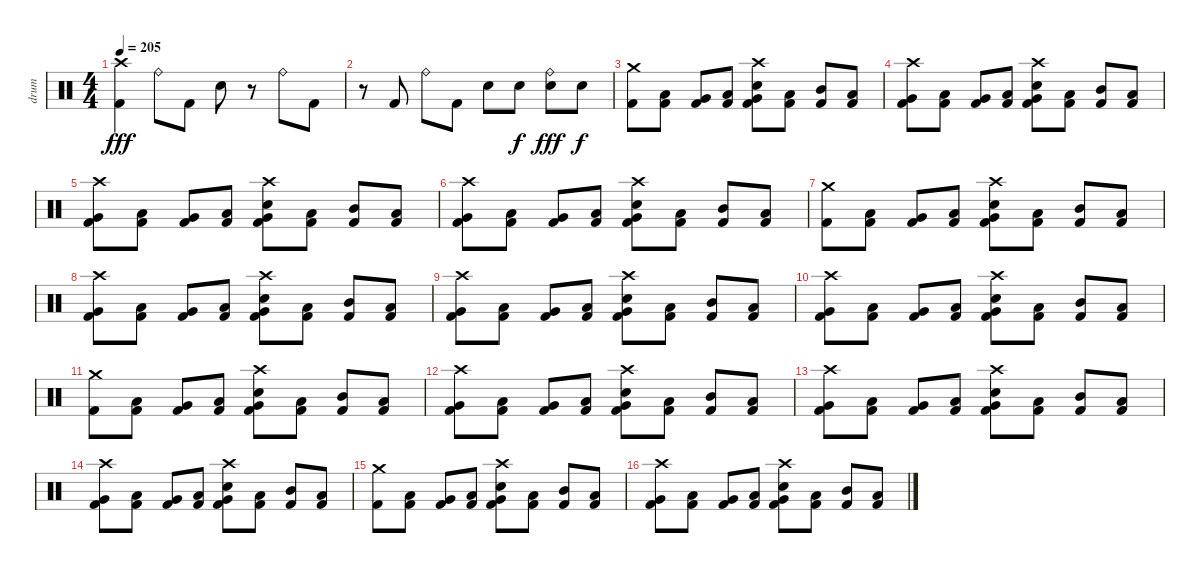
\track ("drum" "drum") {instrument percussion}
\staff {score}
\articulation defaults
\ts (4 4)
\tempo 205
\clef neutral
\ks c
("Crash high (hit)" "Kick (hit) 2").4{dy fff} "Ride (bell)".8 "Kick (hit) 2".8 "Electric Snare (hit)".8 r.8 "Ride (bell)".8 "Kick (hit) 2".8 |
r.8 "Kick (hit) 2".8 "Ride (bell)".8 "Kick (hit) 2".8 "Electric Snare (hit)".8 "Electric Snare (hit)".8{dy f} ("Ride (bell)" "Electric Snare (hit)").8{dy fff} "Electric Snare (hit)".8{dy f} |
("Crash medium (hit)" "Kick (hit) 2").8 ("Low Tom (hit)" "Kick (hit) 2").8 ("Very Low Tom (hit)" "Kick (hit) 2").8 ("Low Floor Tom (hit)" "Kick (hit) 2").8 ("Crash high (hit)" "Very Low Tom (hit)" "Electric Snare (hit)" "Kick (hit) 2").8 ("Low Tom (hit)" "Kick (hit) 2").8 ("Mid Tom (hit)" "Kick (hit) 2").8 ("Low Tom (hit)" "Kick (hit) 2").8 |
("Crash high (hit)" "Very Low Tom (hit)" "Kick (hit) 2").8 ("Low Tom (hit)" "Kick (hit) 2").8 ("Very Low Tom (hit)" "Kick (hit) 2").8 ("Low Floor Tom (hit)" "Kick (hit) 2").8 ("Crash high (hit)" "Very Low Tom (hit)" "Electric Snare (hit)" "Kick (hit) 2").8 ("Low Tom (hit)" "Kick (hit) 2").8 ("Mid Tom (hit)" "Kick (hit) 2").8 ("Low Tom (hit)" "Kick (hit) 2").8 |
("Crash high (hit)" "Very Low Tom (hit)" "Kick (hit) 2").8 ("Low Tom (hit)" "Kick (hit) 2").8 ("Very Low Tom (hit)" "Kick (hit) 2").8 ("Low Floor Tom (hit)" "Kick (hit) 2").8 ("Crash high (hit)" "Very Low Tom (hit)" "Electric Snare (hit)" "Kick (hit) 2").8 ("Low Tom (hit)" "Kick (hit) 2").8 ("Mid Tom (hit)" "Kick (hit) 2").8 ("Low Tom (hit)" "Kick (hit) 2").8 |
("Crash high (hit)" "Very Low Tom (hit)" "Kick (hit) 2").8 ("Low Tom (hit)" "Kick (hit) 2").8 ("Very Low Tom (hit)" "Kick (hit) 2").8 ("Low Floor Tom (hit)" "Kick (hit) 2").8 ("Crash high (hit)" "Very Low Tom (hit)" "Electric Snare (hit)" "Kick (hit) 2").8 ("Low Tom (hit)" "Kick (hit) 2").8 ("Mid Tom (hit)" "Kick (hit) 2").8 ("Low Tom (hit)" "Kick (hit) 2").8 |
("Crash medium (hit)" "Kick (hit) 2").8 ("Low Tom (hit)" "Kick (hit) 2").8 ("Very Low Tom (hit)" "Kick (hit) 2").8 ("Low Floor Tom (hit)" "Kick (hit) 2").8 ("Crash high (hit)" "Very Low Tom (hit)" "Electric Snare (hit)" "Kick (hit) 2").8 ("Low Tom (hit)" "Kick (hit) 2").8 ("Mid Tom (hit)" "Kick (hit) 2").8 ("Low Tom (hit)" "Kick (hit) 2").8 |
("Crash high (hit)" "Very Low Tom (hit)" "Kick (hit) 2").8 ("Low Tom (hit)" "Kick (hit) 2").8 ("Very Low Tom (hit)" "Kick (hit) 2").8 ("Low Floor Tom (hit)" "Kick (hit) 2").8 ("Crash high (hit)" "Very Low Tom (hit)" "Electric Snare (hit)" "Kick (hit) 2").8 ("Low Tom (hit)" "Kick (hit) 2").8 ("Mid Tom (hit)" "Kick (hit) 2").8 ("Low Tom (hit)" "Kick (hit) 2").8 |
("Crash high (hit)" "Very Low Tom (hit)" "Kick (hit) 2").8 ("Low Tom (hit)" "Kick (hit) 2").8 ("Very Low Tom (hit)" "Kick (hit) 2").8 ("Low Floor Tom (hit)" "Kick (hit) 2").8 ("Crash high (hit)" "Very Low Tom (hit)" "Electric Snare (hit)" "Kick (hit) 2").8 ("Low Tom (hit)" "Kick (hit) 2").8 ("Mid Tom (hit)" "Kick (hit) 2").8 ("Low Tom (hit)" "Kick (hit) 2").8 |
("Crash high (hit)" "Very Low Tom (hit)" "Kick (hit) 2").8 ("Low Tom (hit)" "Kick (hit) 2").8 ("Very Low Tom (hit)" "Kick (hit) 2").8 ("Low Floor Tom (hit)" "Kick (hit) 2").8 ("Crash high (hit)" "Very Low Tom (hit)" "Electric Snare (hit)" "Kick (hit) 2").8 ("Low Tom (hit)" "Kick (hit) 2").8 ("Mid Tom (hit)" "Kick (hit) 2").8 ("Low Tom (hit)" "Kick (hit) 2").8 |
("Crash medium (hit)" "Kick (hit) 2").8 ("Low Tom (hit)" "Kick (hit) 2").8 ("Very Low Tom (hit)" "Kick (hit) 2").8 ("Low Floor Tom (hit)" "Kick (hit) 2").8 ("Crash high (hit)" "Very Low Tom (hit)" "Electric Snare (hit)" "Kick (hit) 2").8 ("Low Tom (hit)" "Kick (hit) 2").8 ("Mid Tom (hit)" "Kick (hit) 2").8 ("Low Tom (hit)" "Kick (hit) 2").8 |
("Crash high (hit)" "Very Low Tom (hit)" "Kick (hit) 2").8 ("Low Tom (hit)" "Kick (hit) 2").8 ("Very Low Tom (hit)" "Kick (hit) 2").8 ("Low Floor Tom (hit)" "Kick (hit) 2").8 ("Crash high (hit)" "Very Low Tom (hit)" "Electric Snare (hit)" "Kick (hit) 2").8 ("Low Tom (hit)" "Kick (hit) 2").8 ("Mid Tom (hit)" "Kick (hit) 2").8 ("Low Tom (hit)" "Kick (hit) 2").8 |
("Crash high (hit)" "Very Low Tom (hit)" "Kick (hit) 2").8 ("Low Tom (hit)" "Kick (hit) 2").8 ("Very Low Tom (hit)" "Kick (hit) 2").8 ("Low Floor Tom (hit)" "Kick (hit) 2").8 ("Crash high (hit)" "Very Low Tom (hit)" "Electric Snare (hit)" "Kick (hit) 2").8 ("Low Tom (hit)" "Kick (hit) 2").8 ("Mid Tom (hit)" "Kick (hit) 2").8 ("Low Tom (hit)" "Kick (hit) 2").8 |
("Crash high (hit)" "Very Low Tom (hit)" "Kick (hit) 2").8 ("Low Tom (hit)" "Kick (hit) 2").8 ("Very Low Tom (hit)" "Kick (hit) 2").8 ("Low Floor Tom (hit)" "Kick (hit) 2").8 ("Crash high (hit)" "Very Low Tom (hit)" "Electric Snare (hit)" "Kick (hit) 2").8 ("Low Tom (hit)" "Kick (hit) 2").8 ("Mid Tom (hit)" "Kick (hit) 2").8 ("Low Tom (hit)" "Kick (hit) 2").8 |
("Crash medium (hit)" "Kick (hit) 2").8 ("Low Tom (hit)" "Kick (hit) 2").8 ("Very Low Tom (hit)" "Kick (hit) 2").8 ("Low Floor Tom (hit)" "Kick (hit) 2").8 ("Crash high (hit)" "Very Low Tom (hit)" "Electric Snare (hit)" "Kick (hit) 2").8 ("Low Tom (hit)" "Kick (hit) 2").8 ("Mid Tom (hit)" "Kick (hit) 2").8 ("Low Tom (hit)" "Kick (hit) 2").8 |
("Crash high (hit)" "Very Low Tom (hit)" "Kick (hit) 2").8 ("Low Tom (hit)" "Kick (hit) 2").8 ("Very Low Tom (hit)" "Kick (hit) 2").8 ("Low Floor Tom (hit)" "Kick (hit) 2").8 ("Crash high (hit)" "Very Low Tom (hit)" "Electric Snare (hit)" "Kick (hit) 2").8 ("Low Tom (hit)" "Kick (hit) 2").8 ("Mid Tom (hit)" "Kick (hit) 2").8 ("Low Tom (hit)" "Kick (hit) 2").8
